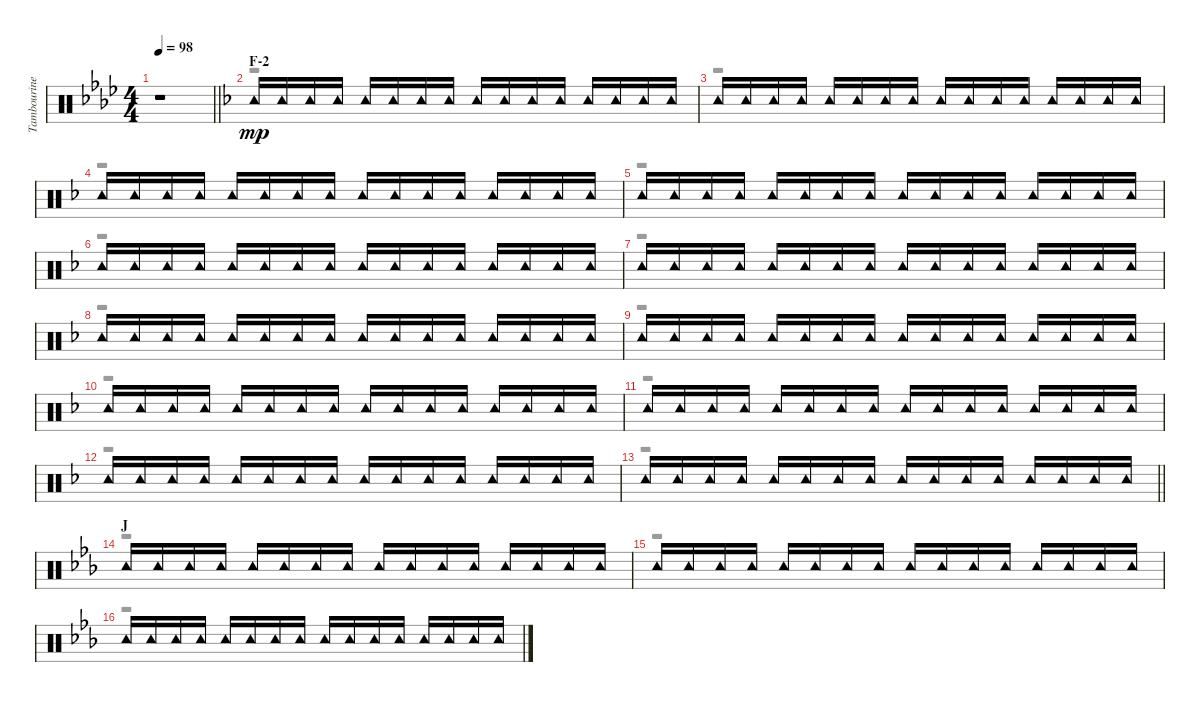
\track ("Tambourine" "Tambourine") {instrument percussion}
\staff {score}
\articulation defaults
\voice
\ts (4 4)
\tempo 98
\clef neutral
\barLineRight lightlight
\ks ab
r.1{dy mp} |
\section ("" "F-2")
\ks f "Tambourine (hit)".16 "Tambourine (hit)".16 "Tambourine (hit)".16 "Tambourine (hit)".16 "Tambourine (hit)".16 "Tambourine (hit)".16 "Tambourine (hit)".16 "Tambourine (hit)".16 "Tambourine (hit)".16 "Tambourine (hit)".16 "Tambourine (hit)".16 "Tambourine (hit)".16 "Tambourine (hit)".16 "Tambourine (hit)".16 "Tambourine (hit)".16 "Tambourine (hit)".16
|
"Tambourine (hit)".16 "Tambourine (hit)".16 "Tambourine (hit)".16 "Tambourine (hit)".16 "Tambourine (hit)".16 "Tambourine (hit)".16 "Tambourine (hit)".16 "Tambourine (hit)".16 "Tambourine (hit)".16 "Tambourine (hit)".16 "Tambourine (hit)".16 "Tambourine (hit)".16 "Tambourine (hit)".16 "Tambourine (hit)".16 "Tambourine (hit)".16 "Tambourine (hit)".16 |
"Tambourine (hit)".16 "Tambourine (hit)".16 "Tambourine (hit)".16 "Tambourine (hit)".16 "Tambourine (hit)".16 "Tambourine (hit)".16 "Tambourine (hit)".16 "Tambourine (hit)".16 "Tambourine (hit)".16 "Tambourine (hit)".16 "Tambourine (hit)".16 "Tambourine (hit)".16 "Tambourine (hit)".16 "Tambourine (hit)".16 "Tambourine (hit)".16 "Tambourine (hit)".16 |
"Tambourine (hit)".16 "Tambourine (hit)".16 "Tambourine (hit)".16 "Tambourine (hit)".16 "Tambourine (hit)".16 "Tambourine (hit)".16 "Tambourine (hit)".16 "Tambourine (hit)".16 "Tambourine (hit)".16 "Tambourine (hit)".16 "Tambourine (hit)".16 "Tambourine (hit)".16 "Tambourine (hit)".16 "Tambourine (hit)".16 "Tambourine (hit)".16 "Tambourine (hit)".16 |
"Tambourine (hit)".16 "Tambourine (hit)".16 "Tambourine (hit)".16 "Tambourine (hit)".16 "Tambourine (hit)".16 "Tambourine (hit)".16 "Tambourine (hit)".16 "Tambourine (hit)".16 "Tambourine (hit)".16 "Tambourine (hit)".16 "Tambourine (hit)".16 "Tambourine (hit)".16 "Tambourine (hit)".16 "Tambourine (hit)".16 "Tambourine (hit)".16 "Tambourine (hit)".16 |
"Tambourine (hit)".16 "Tambourine (hit)".16 "Tambourine (hit)".16 "Tambourine (hit)".16 "Tambourine (hit)".16 "Tambourine (hit)".16 "Tambourine (hit)".16 "Tambourine (hit)".16 "Tambourine (hit)".16 "Tambourine (hit)".16 "Tambourine (hit)".16 "Tambourine (hit)".16 "Tambourine (hit)".16 "Tambourine (hit)".16 "Tambourine (hit)".16 "Tambourine (hit)".16 |
"Tambourine (hit)".16 "Tambourine (hit)".16 "Tambourine (hit)".16 "Tambourine (hit)".16 "Tambourine (hit)".16 "Tambourine (hit)".16 "Tambourine (hit)".16 "Tambourine (hit)".16 "Tambourine (hit)".16 "Tambourine (hit)".16 "Tambourine (hit)".16 "Tambourine (hit)".16 "Tambourine (hit)".16 "Tambourine (hit)".16 "Tambourine (hit)".16 "Tambourine (hit)".16 |
"Tambourine (hit)".16 "Tambourine (hit)".16 "Tambourine (hit)".16 "Tambourine (hit)".16 "Tambourine (hit)".16 "Tambourine (hit)".16 "Tambourine (hit)".16 "Tambourine (hit)".16 "Tambourine (hit)".16 "Tambourine (hit)".16 "Tambourine (hit)".16 "Tambourine (hit)".16 "Tambourine (hit)".16 "Tambourine (hit)".16 "Tambourine (hit)".16 "Tambourine (hit)".16 |
"Tambourine (hit)".16 "Tambourine (hit)".16 "Tambourine (hit)".16 "Tambourine (hit)".16 "Tambourine (hit)".16 "Tambourine (hit)".16 "Tambourine (hit)".16 "Tambourine (hit)".16 "Tambourine (hit)".16 "Tambourine (hit)".16 "Tambourine (hit)".16 "Tambourine (hit)".16 "Tambourine (hit)".16 "Tambourine (hit)".16 "Tambourine (hit)".16 "Tambourine (hit)".16 |
"Tambourine (hit)".16 "Tambourine (hit)".16 "Tambourine (hit)".16 "Tambourine (hit)".16 "Tambourine (hit)".16 "Tambourine (hit)".16 "Tambourine (hit)".16 "Tambourine (hit)".16 "Tambourine (hit)".16 "Tambourine (hit)".16 "Tambourine (hit)".16 "Tambourine (hit)".16 "Tambourine (hit)".16 "Tambourine (hit)".16 "Tambourine (hit)".16 "Tambourine (hit)".16 |
"Tambourine (hit)".16 "Tambourine (hit)".16 "Tambourine (hit)".16 "Tambourine (hit)".16 "Tambourine (hit)".16 "Tambourine (hit)".16 "Tambourine (hit)".16 "Tambourine (hit)".16 "Tambourine (hit)".16 "Tambourine (hit)".16 "Tambourine (hit)".16 "Tambourine (hit)".16 "Tambourine (hit)".16 "Tambourine (hit)".16 "Tambourine (hit)".16 "Tambourine (hit)".16 |
\barLineRight lightlight "Tambourine (hit)".16 "Tambourine (hit)".16 "Tambourine (hit)".16 "Tambourine (hit)".16 "Tambourine (hit)".16 "Tambourine (hit)".16 "Tambourine (hit)".16 "Tambourine (hit)".16 "Tambourine (hit)".16 "Tambourine (hit)".16 "Tambourine (hit)".16 "Tambourine (hit)".16 "Tambourine (hit)".16 "Tambourine (hit)".16 "Tambourine (hit)".16 "Tambourine (hit)".16
|
\section ("" "J")
\ks eb "Tambourine (hit)".16 "Tambourine (hit)".16 "Tambourine (hit)".16 "Tambourine (hit)".16 "Tambourine (hit)".16 "Tambourine (hit)".16 "Tambourine (hit)".16 "Tambourine (hit)".16 "Tambourine (hit)".16 "Tambourine (hit)".16 "Tambourine (hit)".16 "Tambourine (hit)".16 "Tambourine (hit)".16 "Tambourine (hit)".16 "Tambourine (hit)".16 "Tambourine (hit)".16
|
"Tambourine (hit)".16 "Tambourine (hit)".16 "Tambourine (hit)".16 "Tambourine (hit)".16 "Tambourine (hit)".16 "Tambourine (hit)".16 "Tambourine (hit)".16 "Tambourine (hit)".16 "Tambourine (hit)".16 "Tambourine (hit)".16 "Tambourine (hit)".16 "Tambourine (hit)".16 "Tambourine (hit)".16 "Tambourine (hit)".16 "Tambourine (hit)".16 "Tambourine (hit)".16 |
"Tambourine (hit)".16 "Tambourine (hit)".16 "Tambourine (hit)".16 "Tambourine (hit)".16 "Tambourine (hit)".16 "Tambourine (hit)".16 "Tambourine (hit)".16 "Tambourine (hit)".16 "Tambourine (hit)".16 "Tambourine (hit)".16 "Tambourine (hit)".16 "Tambourine (hit)".16 "Tambourine (hit)".16 "Tambourine (hit)".16 "Tambourine (hit)".16 "Tambourine (hit)".16
\voice
\clef neutral
\ottava regular
\simile none
\barLineRight lightlight
\ks ab
r.1{dy f} |
\ks f
r.1 |
r.1 |
r.1 |
r.1 |
r.1 |
r.1 |
r.1 |
r.1 |
r.1 |
r.1 |
r.1 |
\barLineRight lightlight
r.1 |
\ks eb
r.1 |
r.1 |
r.1
